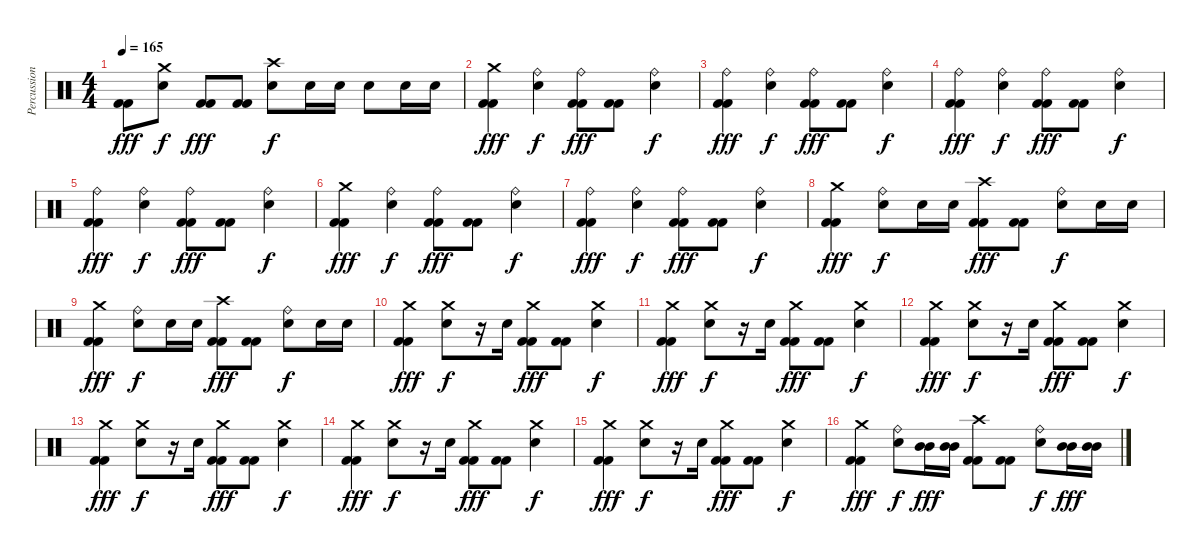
\track ("Percussions" "Percussion") {instrument percussion}
\staff {score}
\articulation defaults
\ts (4 4)
\tempo 165
\clef neutral
\ks c
("Kick (hit) 2" "Kick (hit) 2").8{dy fff} ("Crash medium (hit)" "Electric Snare (hit)").8{dy f} ("Kick (hit) 2" "Kick (hit) 2").8{dy fff} ("Kick (hit) 2" "Kick (hit) 2").8 ("Crash high (hit)" "Electric Snare (hit)").8{dy f} "Electric Snare (hit)".16 "Electric Snare (hit)".16 "Electric Snare (hit)".8 "Electric Snare (hit)".16 "Electric Snare (hit)".16 |
("Crash medium (hit)" "Kick (hit) 2" "Kick (hit) 2").4{dy fff} ("Ride (bell)" "Electric Snare (hit)").4{dy f} ("Ride (bell)" "Kick (hit) 2" "Kick (hit) 2").8{dy fff} ("Kick (hit) 2" "Kick (hit) 2").8 ("Ride (bell)" "Electric Snare (hit)").4{dy f} |
("Ride (bell)" "Kick (hit) 2" "Kick (hit) 2").4{dy fff} ("Ride (bell)" "Electric Snare (hit)").4{dy f} ("Ride (bell)" "Kick (hit) 2" "Kick (hit) 2").8{dy fff} ("Kick (hit) 2" "Kick (hit) 2").8 ("Ride (bell)" "Electric Snare (hit)").4{dy f} |
("Ride (bell)" "Kick (hit) 2" "Kick (hit) 2").4{dy fff} ("Ride (bell)" "Electric Snare (hit)").4{dy f} ("Ride (bell)" "Kick (hit) 2" "Kick (hit) 2").8{dy fff} ("Kick (hit) 2" "Kick (hit) 2").8 ("Ride (bell)" "Electric Snare (hit)").4{dy f} |
("Ride (bell)" "Kick (hit) 2" "Kick (hit) 2").4{dy fff} ("Ride (bell)" "Electric Snare (hit)").4{dy f} ("Ride (bell)" "Kick (hit) 2" "Kick (hit) 2").8{dy fff} ("Kick (hit) 2" "Kick (hit) 2").8 ("Ride (bell)" "Electric Snare (hit)").4{dy f} |
("Crash medium (hit)" "Kick (hit) 2" "Kick (hit) 2").4{dy fff} ("Ride (bell)" "Electric Snare (hit)").4{dy f} ("Ride (bell)" "Kick (hit) 2" "Kick (hit) 2").8{dy fff} ("Kick (hit) 2" "Kick (hit) 2").8 ("Ride (bell)" "Electric Snare (hit)").4{dy f} |
("Ride (bell)" "Kick (hit) 2" "Kick (hit) 2").4{dy fff} ("Ride (bell)" "Electric Snare (hit)").4{dy f} ("Ride (bell)" "Kick (hit) 2" "Kick (hit) 2").8{dy fff} ("Kick (hit) 2" "Kick (hit) 2").8 ("Ride (bell)" "Electric Snare (hit)").4{dy f} |
("Crash medium (hit)" "Kick (hit) 2" "Kick (hit) 2").4{dy fff} ("Ride (bell)" "Electric Snare (hit)").8{dy f} "Electric Snare (hit)".16 "Electric Snare (hit)".16 ("Crash high (hit)" "Kick (hit) 2" "Kick (hit) 2").8{dy fff} ("Kick (hit) 2" "Kick (hit) 2").8 ("Ride (bell)" "Electric Snare (hit)").8{dy f} "Electric Snare (hit)".16 "Electric Snare (hit)".16 |
("Crash medium (hit)" "Kick (hit) 2" "Kick (hit) 2").4{dy fff} ("Ride (bell)" "Electric Snare (hit)").8{dy f} "Electric Snare (hit)".16 "Electric Snare (hit)".16 ("Crash high (hit)" "Kick (hit) 2" "Kick (hit) 2").8{dy fff} ("Kick (hit) 2" "Kick (hit) 2").8 ("Ride (bell)" "Electric Snare (hit)").8{dy f} "Electric Snare (hit)".16 "Electric Snare (hit)".16 |
("Crash medium (hit)" "Kick (hit) 2" "Kick (hit) 2").4{dy fff} ("Crash medium (hit)" "Electric Snare (hit)").8{dy f} r.16 "Electric Snare (hit)".16 ("Crash medium (hit)" "Kick (hit) 2" "Kick (hit) 2").8{dy fff} ("Kick (hit) 2" "Kick (hit) 2").8 ("Crash medium (hit)" "Electric Snare (hit)").4{dy f} |
("Crash medium (hit)" "Kick (hit) 2" "Kick (hit) 2").4{dy fff} ("Crash medium (hit)" "Electric Snare (hit)").8{dy f} r.16 "Electric Snare (hit)".16 ("Crash medium (hit)" "Kick (hit) 2" "Kick (hit) 2").8{dy fff} ("Kick (hit) 2" "Kick (hit) 2").8 ("Crash medium (hit)" "Electric Snare (hit)").4{dy f} |
("Crash medium (hit)" "Kick (hit) 2" "Kick (hit) 2").4{dy fff} ("Crash medium (hit)" "Electric Snare (hit)").8{dy f} r.16 "Electric Snare (hit)".16 ("Crash medium (hit)" "Kick (hit) 2" "Kick (hit) 2").8{dy fff} ("Kick (hit) 2" "Kick (hit) 2").8 ("Crash medium (hit)" "Electric Snare (hit)").4{dy f} |
("Crash medium (hit)" "Kick (hit) 2" "Kick (hit) 2").4{dy fff} ("Crash medium (hit)" "Electric Snare (hit)").8{dy f} r.16 "Electric Snare (hit)".16 ("Crash medium (hit)" "Kick (hit) 2" "Kick (hit) 2").8{dy fff} ("Kick (hit) 2" "Kick (hit) 2").8 ("Crash medium (hit)" "Electric Snare (hit)").4{dy f} |
("Crash medium (hit)" "Kick (hit) 2" "Kick (hit) 2").4{dy fff} ("Crash medium (hit)" "Electric Snare (hit)").8{dy f} r.16 "Electric Snare (hit)".16 ("Crash medium (hit)" "Kick (hit) 2" "Kick (hit) 2").8{dy fff} ("Kick (hit) 2" "Kick (hit) 2").8 ("Crash medium (hit)" "Electric Snare (hit)").4{dy f} |
("Crash medium (hit)" "Kick (hit) 2" "Kick (hit) 2").4{dy fff} ("Crash medium (hit)" "Electric Snare (hit)").8{dy f} r.16 "Electric Snare (hit)".16 ("Crash medium (hit)" "Kick (hit) 2" "Kick (hit) 2").8{dy fff} ("Kick (hit) 2" "Kick (hit) 2").8 ("Crash medium (hit)" "Electric Snare (hit)").4{dy f} |
("Crash medium (hit)" "Kick (hit) 2" "Kick (hit) 2").4{dy fff} ("Ride (bell)" "Electric Snare (hit)").8{dy f} ("Mid Tom (hit)" "Mid Tom (hit)").16{dy fff} ("Mid Tom (hit)" "Mid Tom (hit)").16 ("Crash high (hit)" "Kick (hit) 2" "Kick (hit) 2").8 ("Kick (hit) 2" "Kick (hit) 2").8 ("Ride (bell)" "Electric Snare (hit)").8{dy f} ("Mid Tom (hit)" "Mid Tom (hit)").16{dy fff} ("Mid Tom (hit)" "Mid Tom (hit)").16
